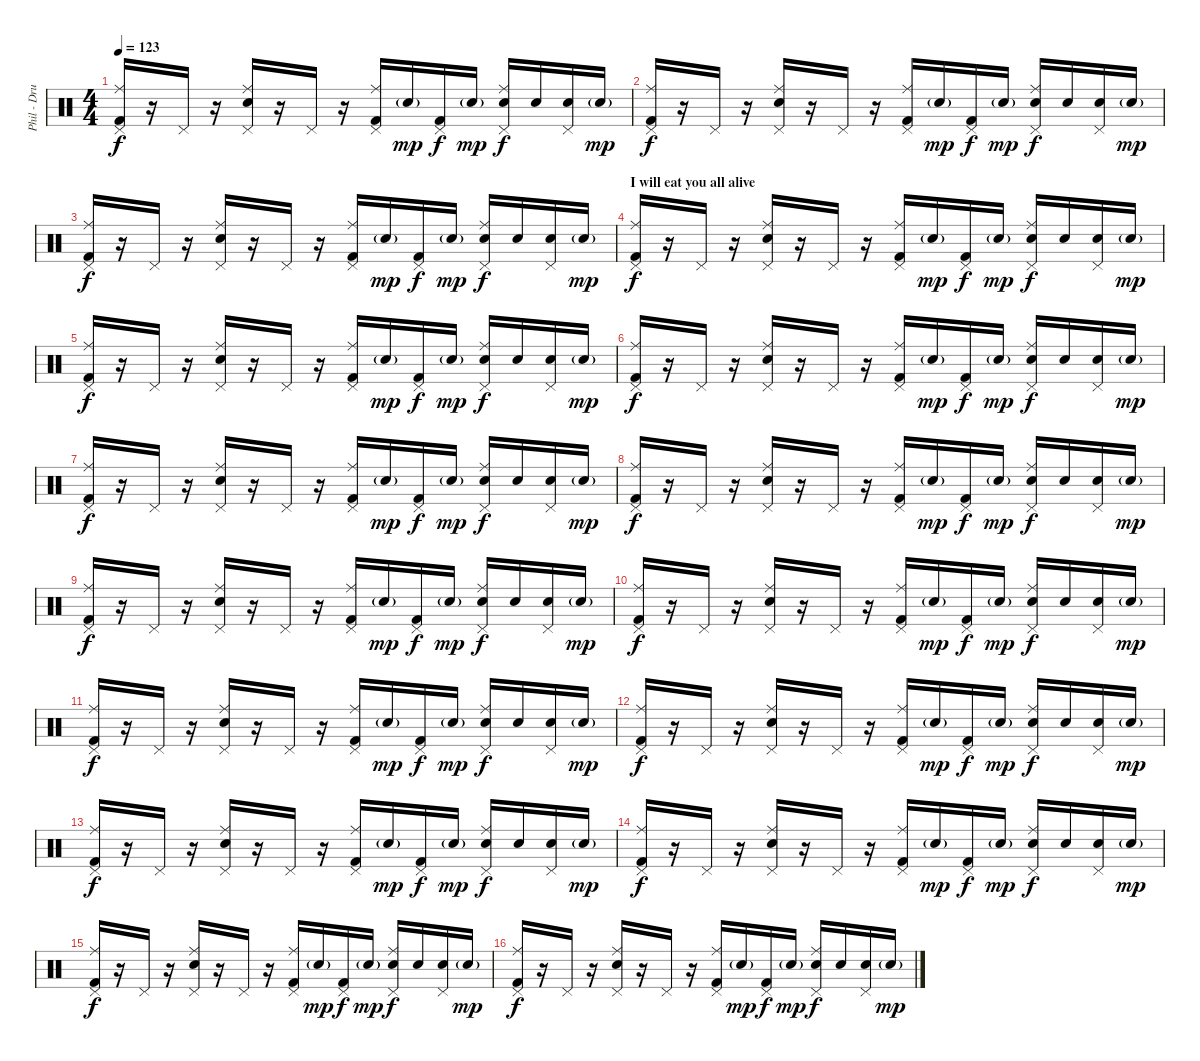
\track ("Phil - Drums" "Phil - Dru") {instrument percussion}
\staff {score}
\articulation defaults
\ts (4 4)
\tempo 123
\clef neutral
\ks c
("Ride (middle)" "Kick (hit) 2" "Pedal Hi-Hat (hit)").16{dy f} r.16 "Pedal Hi-Hat (hit)".16 r.16 ("Ride (middle)" "Snare (hit) 2" "Pedal Hi-Hat (hit)").16 r.16 "Pedal Hi-Hat (hit)".16 r.16 ("Ride (middle)" "Kick (hit) 2" "Pedal Hi-Hat (hit)").16 "Snare (hit) 2"{g}.16{dy mp} ("Kick (hit) 2" "Pedal Hi-Hat (hit)").16{dy f} "Snare (hit) 2"{g}.16{dy mp} ("Ride (middle)" "Snare (hit) 2" "Pedal Hi-Hat (hit)").16{dy f} "Snare (hit) 2".16 ("Snare (hit) 2" "Pedal Hi-Hat (hit)").16 "Snare (hit) 2"{g}.16{dy mp} |
("Ride (middle)" "Kick (hit) 2" "Pedal Hi-Hat (hit)").16{dy f} r.16 "Pedal Hi-Hat (hit)".16 r.16 ("Ride (middle)" "Snare (hit) 2" "Pedal Hi-Hat (hit)").16 r.16 "Pedal Hi-Hat (hit)".16 r.16 ("Ride (middle)" "Kick (hit) 2" "Pedal Hi-Hat (hit)").16 "Snare (hit) 2"{g}.16{dy mp} ("Kick (hit) 2" "Pedal Hi-Hat (hit)").16{dy f} "Snare (hit) 2"{g}.16{dy mp} ("Ride (middle)" "Snare (hit) 2" "Pedal Hi-Hat (hit)").16{dy f} "Snare (hit) 2".16 ("Snare (hit) 2" "Pedal Hi-Hat (hit)").16 "Snare (hit) 2"{g}.16{dy mp} |
("Ride (middle)" "Kick (hit) 2" "Pedal Hi-Hat (hit)").16{dy f} r.16 "Pedal Hi-Hat (hit)".16 r.16 ("Ride (middle)" "Snare (hit) 2" "Pedal Hi-Hat (hit)").16 r.16 "Pedal Hi-Hat (hit)".16 r.16 ("Ride (middle)" "Kick (hit) 2" "Pedal Hi-Hat (hit)").16 "Snare (hit) 2"{g}.16{dy mp} ("Kick (hit) 2" "Pedal Hi-Hat (hit)").16{dy f} "Snare (hit) 2"{g}.16{dy mp} ("Ride (middle)" "Snare (hit) 2" "Pedal Hi-Hat (hit)").16{dy f} "Snare (hit) 2".16 ("Snare (hit) 2" "Pedal Hi-Hat (hit)").16 "Snare (hit) 2"{g}.16{dy mp} |
\section ("" "I will eat you all alive")
("Ride (middle)" "Kick (hit) 2" "Pedal Hi-Hat (hit)").16{dy f} r.16 "Pedal Hi-Hat (hit)".16 r.16 ("Ride (middle)" "Snare (hit) 2" "Pedal Hi-Hat (hit)").16 r.16 "Pedal Hi-Hat (hit)".16 r.16 ("Ride (middle)" "Kick (hit) 2" "Pedal Hi-Hat (hit)").16 "Snare (hit) 2"{g}.16{dy mp} ("Kick (hit) 2" "Pedal Hi-Hat (hit)").16{dy f} "Snare (hit) 2"{g}.16{dy mp} ("Ride (middle)" "Snare (hit) 2" "Pedal Hi-Hat (hit)").16{dy f} "Snare (hit) 2".16 ("Snare (hit) 2" "Pedal Hi-Hat (hit)").16 "Snare (hit) 2"{g}.16{dy mp} |
("Ride (middle)" "Kick (hit) 2" "Pedal Hi-Hat (hit)").16{dy f} r.16 "Pedal Hi-Hat (hit)".16 r.16 ("Ride (middle)" "Snare (hit) 2" "Pedal Hi-Hat (hit)").16 r.16 "Pedal Hi-Hat (hit)".16 r.16 ("Ride (middle)" "Kick (hit) 2" "Pedal Hi-Hat (hit)").16 "Snare (hit) 2"{g}.16{dy mp} ("Kick (hit) 2" "Pedal Hi-Hat (hit)").16{dy f} "Snare (hit) 2"{g}.16{dy mp} ("Ride (middle)" "Snare (hit) 2" "Pedal Hi-Hat (hit)").16{dy f} "Snare (hit) 2".16 ("Snare (hit) 2" "Pedal Hi-Hat (hit)").16 "Snare (hit) 2"{g}.16{dy mp} |
("Ride (middle)" "Kick (hit) 2" "Pedal Hi-Hat (hit)").16{dy f} r.16 "Pedal Hi-Hat (hit)".16 r.16 ("Ride (middle)" "Snare (hit) 2" "Pedal Hi-Hat (hit)").16 r.16 "Pedal Hi-Hat (hit)".16 r.16 ("Ride (middle)" "Kick (hit) 2" "Pedal Hi-Hat (hit)").16 "Snare (hit) 2"{g}.16{dy mp} ("Kick (hit) 2" "Pedal Hi-Hat (hit)").16{dy f} "Snare (hit) 2"{g}.16{dy mp} ("Ride (middle)" "Snare (hit) 2" "Pedal Hi-Hat (hit)").16{dy f} "Snare (hit) 2".16 ("Snare (hit) 2" "Pedal Hi-Hat (hit)").16 "Snare (hit) 2"{g}.16{dy mp} |
("Ride (middle)" "Kick (hit) 2" "Pedal Hi-Hat (hit)").16{dy f} r.16 "Pedal Hi-Hat (hit)".16 r.16 ("Ride (middle)" "Snare (hit) 2" "Pedal Hi-Hat (hit)").16 r.16 "Pedal Hi-Hat (hit)".16 r.16 ("Ride (middle)" "Kick (hit) 2" "Pedal Hi-Hat (hit)").16 "Snare (hit) 2"{g}.16{dy mp} ("Kick (hit) 2" "Pedal Hi-Hat (hit)").16{dy f} "Snare (hit) 2"{g}.16{dy mp} ("Ride (middle)" "Snare (hit) 2" "Pedal Hi-Hat (hit)").16{dy f} "Snare (hit) 2".16 ("Snare (hit) 2" "Pedal Hi-Hat (hit)").16 "Snare (hit) 2"{g}.16{dy mp} |
("Ride (middle)" "Kick (hit) 2" "Pedal Hi-Hat (hit)").16{dy f} r.16 "Pedal Hi-Hat (hit)".16 r.16 ("Ride (middle)" "Snare (hit) 2" "Pedal Hi-Hat (hit)").16 r.16 "Pedal Hi-Hat (hit)".16 r.16 ("Ride (middle)" "Kick (hit) 2" "Pedal Hi-Hat (hit)").16 "Snare (hit) 2"{g}.16{dy mp} ("Kick (hit) 2" "Pedal Hi-Hat (hit)").16{dy f} "Snare (hit) 2"{g}.16{dy mp} ("Ride (middle)" "Snare (hit) 2" "Pedal Hi-Hat (hit)").16{dy f} "Snare (hit) 2".16 ("Snare (hit) 2" "Pedal Hi-Hat (hit)").16 "Snare (hit) 2"{g}.16{dy mp} |
("Ride (middle)" "Kick (hit) 2" "Pedal Hi-Hat (hit)").16{dy f} r.16 "Pedal Hi-Hat (hit)".16 r.16 ("Ride (middle)" "Snare (hit) 2" "Pedal Hi-Hat (hit)").16 r.16 "Pedal Hi-Hat (hit)".16 r.16 ("Ride (middle)" "Kick (hit) 2" "Pedal Hi-Hat (hit)").16 "Snare (hit) 2"{g}.16{dy mp} ("Kick (hit) 2" "Pedal Hi-Hat (hit)").16{dy f} "Snare (hit) 2"{g}.16{dy mp} ("Ride (middle)" "Snare (hit) 2" "Pedal Hi-Hat (hit)").16{dy f} "Snare (hit) 2".16 ("Snare (hit) 2" "Pedal Hi-Hat (hit)").16 "Snare (hit) 2"{g}.16{dy mp} |
("Ride (middle)" "Kick (hit) 2" "Pedal Hi-Hat (hit)").16{dy f} r.16 "Pedal Hi-Hat (hit)".16 r.16 ("Ride (middle)" "Snare (hit) 2" "Pedal Hi-Hat (hit)").16 r.16 "Pedal Hi-Hat (hit)".16 r.16 ("Ride (middle)" "Kick (hit) 2" "Pedal Hi-Hat (hit)").16 "Snare (hit) 2"{g}.16{dy mp} ("Kick (hit) 2" "Pedal Hi-Hat (hit)").16{dy f} "Snare (hit) 2"{g}.16{dy mp} ("Ride (middle)" "Snare (hit) 2" "Pedal Hi-Hat (hit)").16{dy f} "Snare (hit) 2".16 ("Snare (hit) 2" "Pedal Hi-Hat (hit)").16 "Snare (hit) 2"{g}.16{dy mp} |
("Ride (middle)" "Kick (hit) 2" "Pedal Hi-Hat (hit)").16{dy f} r.16 "Pedal Hi-Hat (hit)".16 r.16 ("Ride (middle)" "Snare (hit) 2" "Pedal Hi-Hat (hit)").16 r.16 "Pedal Hi-Hat (hit)".16 r.16 ("Ride (middle)" "Kick (hit) 2" "Pedal Hi-Hat (hit)").16 "Snare (hit) 2"{g}.16{dy mp} ("Kick (hit) 2" "Pedal Hi-Hat (hit)").16{dy f} "Snare (hit) 2"{g}.16{dy mp} ("Ride (middle)" "Snare (hit) 2" "Pedal Hi-Hat (hit)").16{dy f} "Snare (hit) 2".16 ("Snare (hit) 2" "Pedal Hi-Hat (hit)").16 "Snare (hit) 2"{g}.16{dy mp} |
("Ride (middle)" "Kick (hit) 2" "Pedal Hi-Hat (hit)").16{dy f} r.16 "Pedal Hi-Hat (hit)".16 r.16 ("Ride (middle)" "Snare (hit) 2" "Pedal Hi-Hat (hit)").16 r.16 "Pedal Hi-Hat (hit)".16 r.16 ("Ride (middle)" "Kick (hit) 2" "Pedal Hi-Hat (hit)").16 "Snare (hit) 2"{g}.16{dy mp} ("Kick (hit) 2" "Pedal Hi-Hat (hit)").16{dy f} "Snare (hit) 2"{g}.16{dy mp} ("Ride (middle)" "Snare (hit) 2" "Pedal Hi-Hat (hit)").16{dy f} "Snare (hit) 2".16 ("Snare (hit) 2" "Pedal Hi-Hat (hit)").16 "Snare (hit) 2"{g}.16{dy mp} |
("Ride (middle)" "Kick (hit) 2" "Pedal Hi-Hat (hit)").16{dy f} r.16 "Pedal Hi-Hat (hit)".16 r.16 ("Ride (middle)" "Snare (hit) 2" "Pedal Hi-Hat (hit)").16 r.16 "Pedal Hi-Hat (hit)".16 r.16 ("Ride (middle)" "Kick (hit) 2" "Pedal Hi-Hat (hit)").16 "Snare (hit) 2"{g}.16{dy mp} ("Kick (hit) 2" "Pedal Hi-Hat (hit)").16{dy f} "Snare (hit) 2"{g}.16{dy mp} ("Ride (middle)" "Snare (hit) 2" "Pedal Hi-Hat (hit)").16{dy f} "Snare (hit) 2".16 ("Snare (hit) 2" "Pedal Hi-Hat (hit)").16 "Snare (hit) 2"{g}.16{dy mp} |
("Ride (middle)" "Kick (hit) 2" "Pedal Hi-Hat (hit)").16{dy f} r.16 "Pedal Hi-Hat (hit)".16 r.16 ("Ride (middle)" "Snare (hit) 2" "Pedal Hi-Hat (hit)").16 r.16 "Pedal Hi-Hat (hit)".16 r.16 ("Ride (middle)" "Kick (hit) 2" "Pedal Hi-Hat (hit)").16 "Snare (hit) 2"{g}.16{dy mp} ("Kick (hit) 2" "Pedal Hi-Hat (hit)").16{dy f} "Snare (hit) 2"{g}.16{dy mp} ("Ride (middle)" "Snare (hit) 2" "Pedal Hi-Hat (hit)").16{dy f} "Snare (hit) 2".16 ("Snare (hit) 2" "Pedal Hi-Hat (hit)").16 "Snare (hit) 2"{g}.16{dy mp} |
("Ride (middle)" "Kick (hit) 2" "Pedal Hi-Hat (hit)").16{dy f} r.16 "Pedal Hi-Hat (hit)".16 r.16 ("Ride (middle)" "Snare (hit) 2" "Pedal Hi-Hat (hit)").16 r.16 "Pedal Hi-Hat (hit)".16 r.16 ("Ride (middle)" "Kick (hit) 2" "Pedal Hi-Hat (hit)").16 "Snare (hit) 2"{g}.16{dy mp} ("Kick (hit) 2" "Pedal Hi-Hat (hit)").16{dy f} "Snare (hit) 2"{g}.16{dy mp} ("Ride (middle)" "Snare (hit) 2" "Pedal Hi-Hat (hit)").16{dy f} "Snare (hit) 2".16 ("Snare (hit) 2" "Pedal Hi-Hat (hit)").16 "Snare (hit) 2"{g}.16{dy mp} |
("Ride (middle)" "Kick (hit) 2" "Pedal Hi-Hat (hit)").16{dy f} r.16 "Pedal Hi-Hat (hit)".16 r.16 ("Ride (middle)" "Snare (hit) 2" "Pedal Hi-Hat (hit)").16 r.16 "Pedal Hi-Hat (hit)".16 r.16 ("Ride (middle)" "Kick (hit) 2" "Pedal Hi-Hat (hit)").16 "Snare (hit) 2"{g}.16{dy mp} ("Kick (hit) 2" "Pedal Hi-Hat (hit)").16{dy f} "Snare (hit) 2"{g}.16{dy mp} ("Ride (middle)" "Snare (hit) 2" "Pedal Hi-Hat (hit)").16{dy f} "Snare (hit) 2".16 ("Snare (hit) 2" "Pedal Hi-Hat (hit)").16 "Snare (hit) 2"{g}.16{dy mp}
